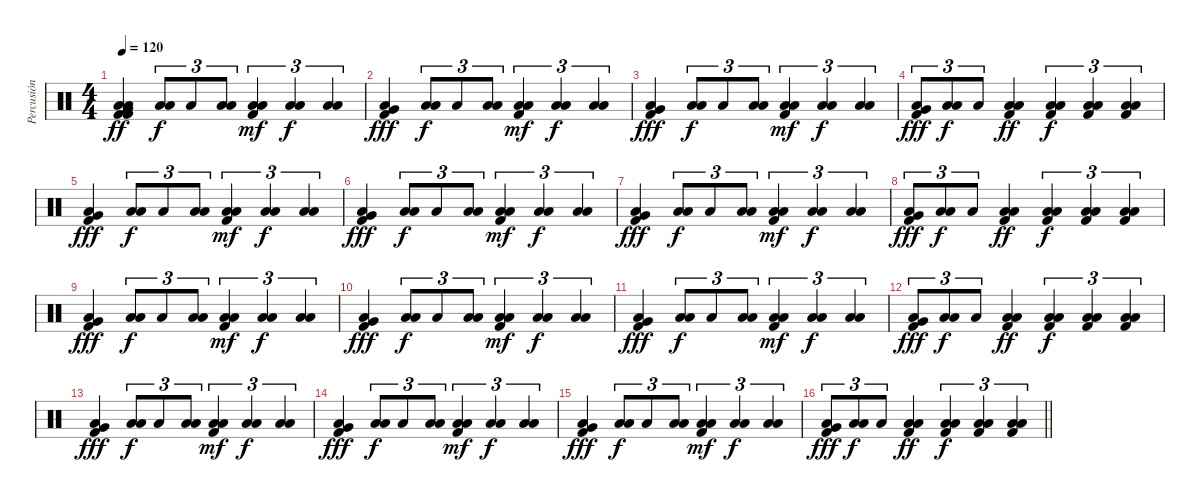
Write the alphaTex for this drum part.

\track ("Percusión" "Percusión") {instrument percussion}
\staff {score}
\articulation defaults
\ts (4 4)
\tempo 120
\clef neutral
\ks c
("Kick (hit) 2" "Kick (hit) 2" "Very Low Tom (hit)" "Low Floor Tom (hit)" "Low Floor Tom (hit)").4{dy ff} ("Low Floor Tom (hit)" "Low Floor Tom (hit)").8{tu (3 2) dy f} "Low Floor Tom (hit)".8{tu (3 2)} ("Low Floor Tom (hit)" "Low Floor Tom (hit)").8{tu (3 2)} ("Kick (hit) 2" "Low Floor Tom (hit)" "Low Floor Tom (hit)").4{tu (3 2) dy mf} ("Low Floor Tom (hit)" "Low Floor Tom (hit)").4{tu (3 2) dy f} ("Low Floor Tom (hit)" "Low Floor Tom (hit)").4{tu (3 2)} |
("Low Floor Tom (hit)" "Very Low Tom (hit)" "Kick (hit) 2").4{dy fff} ("Low Floor Tom (hit)" "Low Floor Tom (hit)").8{tu (3 2) dy f} "Low Floor Tom (hit)".8{tu (3 2)} ("Low Floor Tom (hit)" "Low Floor Tom (hit)").8{tu (3 2)} ("Kick (hit) 2" "Low Floor Tom (hit)" "Low Floor Tom (hit)").4{tu (3 2) dy mf} ("Low Floor Tom (hit)" "Low Floor Tom (hit)").4{tu (3 2) dy f} ("Low Floor Tom (hit)" "Low Floor Tom (hit)").4{tu (3 2)} |
("Low Floor Tom (hit)" "Very Low Tom (hit)" "Kick (hit) 2").4{dy fff} ("Low Floor Tom (hit)" "Low Floor Tom (hit)").8{tu (3 2) dy f} "Low Floor Tom (hit)".8{tu (3 2)} ("Low Floor Tom (hit)" "Low Floor Tom (hit)").8{tu (3 2)} ("Kick (hit) 2" "Low Floor Tom (hit)" "Low Floor Tom (hit)").4{tu (3 2) dy mf} ("Low Floor Tom (hit)" "Low Floor Tom (hit)").4{tu (3 2) dy f} ("Low Floor Tom (hit)" "Low Floor Tom (hit)").4{tu (3 2)} |
("Low Floor Tom (hit)" "Very Low Tom (hit)" "Kick (hit) 2").8{tu (3 2) dy fff} ("Low Floor Tom (hit)" "Low Floor Tom (hit)").8{tu (3 2) dy f} "Low Floor Tom (hit)".8{tu (3 2)} ("Kick (hit) 2" "Low Floor Tom (hit)" "Low Floor Tom (hit)").4{dy ff} ("Kick (hit) 2" "Low Floor Tom (hit)" "Low Floor Tom (hit)").4{tu (3 2) dy f} ("Kick (hit) 2" "Low Floor Tom (hit)" "Low Floor Tom (hit)").4{tu (3 2)} ("Kick (hit) 2" "Low Floor Tom (hit)" "Low Floor Tom (hit)").4{tu (3 2)} |
("Low Floor Tom (hit)" "Very Low Tom (hit)" "Kick (hit) 2").4{dy fff} ("Low Floor Tom (hit)" "Low Floor Tom (hit)").8{tu (3 2) dy f} "Low Floor Tom (hit)".8{tu (3 2)} ("Low Floor Tom (hit)" "Low Floor Tom (hit)").8{tu (3 2)} ("Kick (hit) 2" "Low Floor Tom (hit)" "Low Floor Tom (hit)").4{tu (3 2) dy mf} ("Low Floor Tom (hit)" "Low Floor Tom (hit)").4{tu (3 2) dy f} ("Low Floor Tom (hit)" "Low Floor Tom (hit)").4{tu (3 2)} |
("Low Floor Tom (hit)" "Very Low Tom (hit)" "Kick (hit) 2").4{dy fff} ("Low Floor Tom (hit)" "Low Floor Tom (hit)").8{tu (3 2) dy f} "Low Floor Tom (hit)".8{tu (3 2)} ("Low Floor Tom (hit)" "Low Floor Tom (hit)").8{tu (3 2)} ("Kick (hit) 2" "Low Floor Tom (hit)" "Low Floor Tom (hit)").4{tu (3 2) dy mf} ("Low Floor Tom (hit)" "Low Floor Tom (hit)").4{tu (3 2) dy f} ("Low Floor Tom (hit)" "Low Floor Tom (hit)").4{tu (3 2)} |
("Low Floor Tom (hit)" "Very Low Tom (hit)" "Kick (hit) 2").4{dy fff} ("Low Floor Tom (hit)" "Low Floor Tom (hit)").8{tu (3 2) dy f} "Low Floor Tom (hit)".8{tu (3 2)} ("Low Floor Tom (hit)" "Low Floor Tom (hit)").8{tu (3 2)} ("Kick (hit) 2" "Low Floor Tom (hit)" "Low Floor Tom (hit)").4{tu (3 2) dy mf} ("Low Floor Tom (hit)" "Low Floor Tom (hit)").4{tu (3 2) dy f} ("Low Floor Tom (hit)" "Low Floor Tom (hit)").4{tu (3 2)} |
("Low Floor Tom (hit)" "Very Low Tom (hit)" "Kick (hit) 2").8{tu (3 2) dy fff} ("Low Floor Tom (hit)" "Low Floor Tom (hit)").8{tu (3 2) dy f} "Low Floor Tom (hit)".8{tu (3 2)} ("Kick (hit) 2" "Low Floor Tom (hit)" "Low Floor Tom (hit)").4{dy ff} ("Kick (hit) 2" "Low Floor Tom (hit)" "Low Floor Tom (hit)").4{tu (3 2) dy f} ("Kick (hit) 2" "Low Floor Tom (hit)" "Low Floor Tom (hit)").4{tu (3 2)} ("Kick (hit) 2" "Low Floor Tom (hit)" "Low Floor Tom (hit)").4{tu (3 2)} |
("Low Floor Tom (hit)" "Very Low Tom (hit)" "Kick (hit) 2").4{dy fff} ("Low Floor Tom (hit)" "Low Floor Tom (hit)").8{tu (3 2) dy f} "Low Floor Tom (hit)".8{tu (3 2)} ("Low Floor Tom (hit)" "Low Floor Tom (hit)").8{tu (3 2)} ("Kick (hit) 2" "Low Floor Tom (hit)" "Low Floor Tom (hit)").4{tu (3 2) dy mf} ("Low Floor Tom (hit)" "Low Floor Tom (hit)").4{tu (3 2) dy f} ("Low Floor Tom (hit)" "Low Floor Tom (hit)").4{tu (3 2)} |
("Low Floor Tom (hit)" "Very Low Tom (hit)" "Kick (hit) 2").4{dy fff} ("Low Floor Tom (hit)" "Low Floor Tom (hit)").8{tu (3 2) dy f} "Low Floor Tom (hit)".8{tu (3 2)} ("Low Floor Tom (hit)" "Low Floor Tom (hit)").8{tu (3 2)} ("Kick (hit) 2" "Low Floor Tom (hit)" "Low Floor Tom (hit)").4{tu (3 2) dy mf} ("Low Floor Tom (hit)" "Low Floor Tom (hit)").4{tu (3 2) dy f} ("Low Floor Tom (hit)" "Low Floor Tom (hit)").4{tu (3 2)} |
("Low Floor Tom (hit)" "Very Low Tom (hit)" "Kick (hit) 2").4{dy fff} ("Low Floor Tom (hit)" "Low Floor Tom (hit)").8{tu (3 2) dy f} "Low Floor Tom (hit)".8{tu (3 2)} ("Low Floor Tom (hit)" "Low Floor Tom (hit)").8{tu (3 2)} ("Kick (hit) 2" "Low Floor Tom (hit)" "Low Floor Tom (hit)").4{tu (3 2) dy mf} ("Low Floor Tom (hit)" "Low Floor Tom (hit)").4{tu (3 2) dy f} ("Low Floor Tom (hit)" "Low Floor Tom (hit)").4{tu (3 2)} |
("Low Floor Tom (hit)" "Very Low Tom (hit)" "Kick (hit) 2").8{tu (3 2) dy fff} ("Low Floor Tom (hit)" "Low Floor Tom (hit)").8{tu (3 2) dy f} "Low Floor Tom (hit)".8{tu (3 2)} ("Kick (hit) 2" "Low Floor Tom (hit)" "Low Floor Tom (hit)").4{dy ff} ("Kick (hit) 2" "Low Floor Tom (hit)" "Low Floor Tom (hit)").4{tu (3 2) dy f} ("Kick (hit) 2" "Low Floor Tom (hit)" "Low Floor Tom (hit)").4{tu (3 2)} ("Kick (hit) 2" "Low Floor Tom (hit)" "Low Floor Tom (hit)").4{tu (3 2)} |
("Low Floor Tom (hit)" "Very Low Tom (hit)" "Kick (hit) 2").4{dy fff} ("Low Floor Tom (hit)" "Low Floor Tom (hit)").8{tu (3 2) dy f} "Low Floor Tom (hit)".8{tu (3 2)} ("Low Floor Tom (hit)" "Low Floor Tom (hit)").8{tu (3 2)} ("Kick (hit) 2" "Low Floor Tom (hit)" "Low Floor Tom (hit)").4{tu (3 2) dy mf} ("Low Floor Tom (hit)" "Low Floor Tom (hit)").4{tu (3 2) dy f} ("Low Floor Tom (hit)" "Low Floor Tom (hit)").4{tu (3 2)} |
("Low Floor Tom (hit)" "Very Low Tom (hit)" "Kick (hit) 2").4{dy fff} ("Low Floor Tom (hit)" "Low Floor Tom (hit)").8{tu (3 2) dy f} "Low Floor Tom (hit)".8{tu (3 2)} ("Low Floor Tom (hit)" "Low Floor Tom (hit)").8{tu (3 2)} ("Kick (hit) 2" "Low Floor Tom (hit)" "Low Floor Tom (hit)").4{tu (3 2) dy mf} ("Low Floor Tom (hit)" "Low Floor Tom (hit)").4{tu (3 2) dy f} ("Low Floor Tom (hit)" "Low Floor Tom (hit)").4{tu (3 2)} |
("Low Floor Tom (hit)" "Very Low Tom (hit)" "Kick (hit) 2").4{dy fff} ("Low Floor Tom (hit)" "Low Floor Tom (hit)").8{tu (3 2) dy f} "Low Floor Tom (hit)".8{tu (3 2)} ("Low Floor Tom (hit)" "Low Floor Tom (hit)").8{tu (3 2)} ("Kick (hit) 2" "Low Floor Tom (hit)" "Low Floor Tom (hit)").4{tu (3 2) dy mf} ("Low Floor Tom (hit)" "Low Floor Tom (hit)").4{tu (3 2) dy f} ("Low Floor Tom (hit)" "Low Floor Tom (hit)").4{tu (3 2)} |
\barLineRight lightlight
("Low Floor Tom (hit)" "Very Low Tom (hit)" "Kick (hit) 2").8{tu (3 2) dy fff} ("Low Floor Tom (hit)" "Low Floor Tom (hit)").8{tu (3 2) dy f} "Low Floor Tom (hit)".8{tu (3 2)} ("Kick (hit) 2" "Low Floor Tom (hit)" "Low Floor Tom (hit)").4{dy ff} ("Kick (hit) 2" "Low Floor Tom (hit)" "Low Floor Tom (hit)").4{tu (3 2) dy f} ("Kick (hit) 2" "Low Floor Tom (hit)" "Low Floor Tom (hit)").4{tu (3 2)} ("Kick (hit) 2" "Low Floor Tom (hit)" "Low Floor Tom (hit)").4{tu (3 2)}
